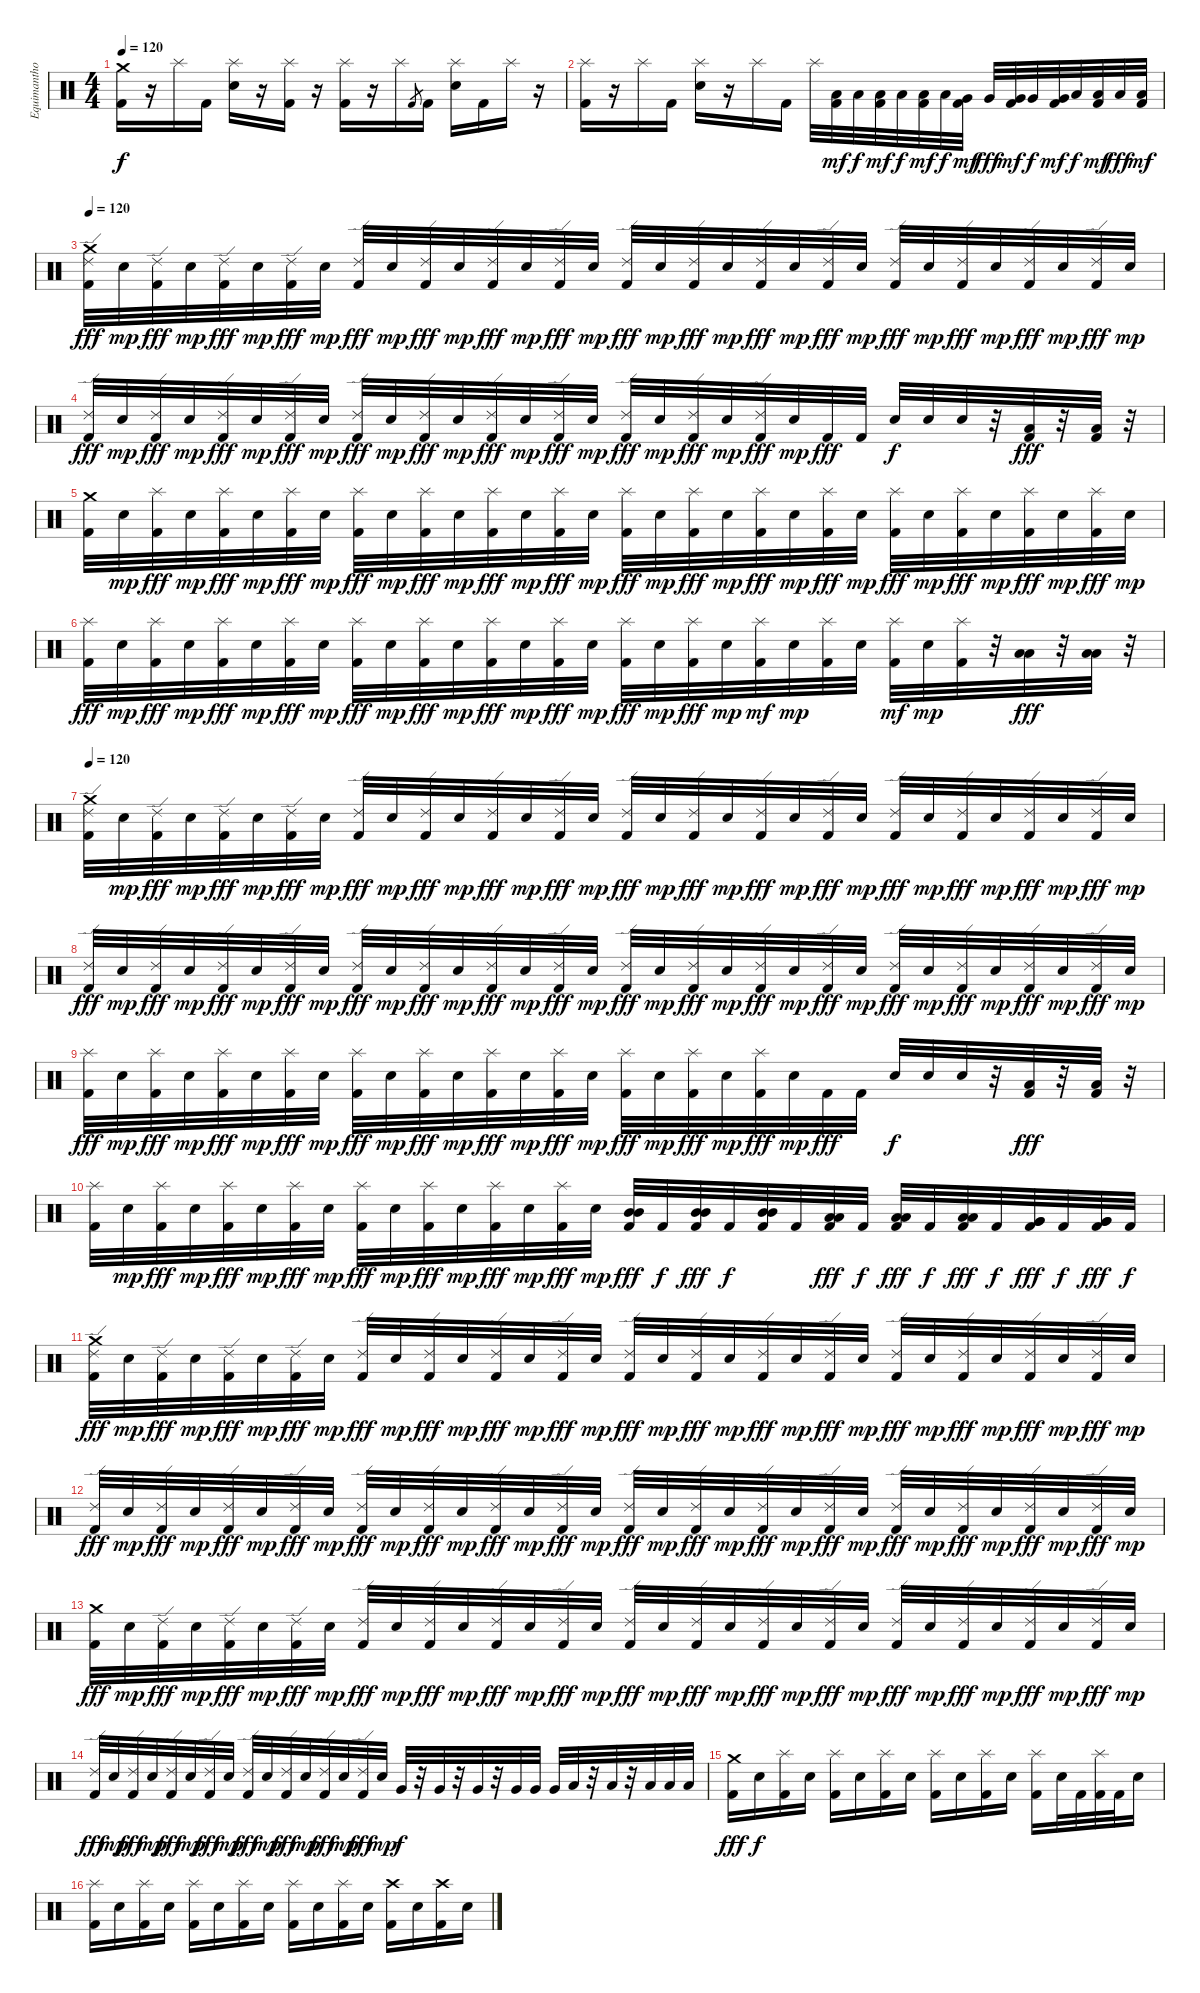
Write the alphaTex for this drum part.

\track ("Equimanthorn" "Equimantho") {instrument percussion}
\staff {score}
\articulation defaults
\ts (4 4)
\tempo 120
\clef neutral
\ks c
("Crash medium (hit)" "Kick (hit) 2").16{dy f} r.16 "Splash (hit)".16 "Kick (hit) 2".16 ("Splash (hit)" "Snare (hit) 2").16 r.16 ("Splash (hit)" "Kick (hit) 2").16 r.16 ("Splash (hit)" "Kick (hit) 2").16 r.16 "Splash (hit)".16 "Kick (hit) 2".8{gr} "Kick (hit) 2".16 ("Splash (hit)" "Snare (hit) 2").16 "Kick (hit) 2".16 "Splash (hit)".16 r.16 |
("Splash (hit)" "Kick (hit) 2").16 r.16 "Splash (hit)".16 "Kick (hit) 2".16 ("Splash (hit)" "Snare (hit) 2").16 r.16 "Splash (hit)".16 "Kick (hit) 2".16 "Splash (hit)".32 ("Low Tom (hit)" "Kick (hit) 2").32{dy mf} "Low Tom (hit)".32{dy f} ("Low Tom (hit)" "Kick (hit) 2").32{dy mf} "Low Tom (hit)".32{dy f} ("Low Tom (hit)" "Kick (hit) 2").32{dy mf} "Low Tom (hit)".32{dy f} ("Very Low Tom (hit)" "Kick (hit) 2").32{dy mf} "Very Low Tom (hit)".32{dy fff} ("Very Low Tom (hit)" "Kick (hit) 2").32{dy mf} "Very Low Tom (hit)".32{dy f} ("Very Low Tom (hit)" "Kick (hit) 2").32{dy mf} "Low Floor Tom (hit)".32{dy f} ("Low Floor Tom (hit)" "Kick (hit) 2").32{dy mf} "Low Floor Tom (hit)".32{dy fff} ("Low Floor Tom (hit)" "Kick (hit) 2").32{dy mf} |
\tempo 120
("Crash medium (hit)" "Ride (edge) 2" "Kick (hit) 2").32{dy fff} "Snare (hit) 2".32{dy mp} ("Ride (edge) 2" "Kick (hit) 2").32{dy fff} "Snare (hit) 2".32{dy mp} ("Ride (edge) 2" "Kick (hit) 2").32{dy fff} "Snare (hit) 2".32{dy mp} ("Ride (edge) 2" "Kick (hit) 2").32{dy fff} "Snare (hit) 2".32{dy mp} ("Ride (edge) 2" "Kick (hit) 2").32{dy fff} "Snare (hit) 2".32{dy mp} ("Ride (edge) 2" "Kick (hit) 2").32{dy fff} "Snare (hit) 2".32{dy mp} ("Ride (edge) 2" "Kick (hit) 2").32{dy fff} "Snare (hit) 2".32{dy mp} ("Ride (edge) 2" "Kick (hit) 2").32{dy fff} "Snare (hit) 2".32{dy mp} ("Ride (edge) 2" "Kick (hit) 2").32{dy fff} "Snare (hit) 2".32{dy mp} ("Ride (edge) 2" "Kick (hit) 2").32{dy fff} "Snare (hit) 2".32{dy mp} ("Ride (edge) 2" "Kick (hit) 2").32{dy fff} "Snare (hit) 2".32{dy mp} ("Ride (edge) 2" "Kick (hit) 2").32{dy fff} "Snare (hit) 2".32{dy mp} ("Ride (edge) 2" "Kick (hit) 2").32{dy fff} "Snare (hit) 2".32{dy mp} ("Ride (edge) 2" "Kick (hit) 2").32{dy fff} "Snare (hit) 2".32{dy mp} ("Ride (edge) 2" "Kick (hit) 2").32{dy fff} "Snare (hit) 2".32{dy mp} ("Ride (edge) 2" "Kick (hit) 2").32{dy fff} "Snare (hit) 2".32{dy mp} |
("Ride (edge) 2" "Kick (hit) 2").32{dy fff} "Snare (hit) 2".32{dy mp} ("Ride (edge) 2" "Kick (hit) 2").32{dy fff} "Snare (hit) 2".32{dy mp} ("Ride (edge) 2" "Kick (hit) 2").32{dy fff} "Snare (hit) 2".32{dy mp} ("Ride (edge) 2" "Kick (hit) 2").32{dy fff} "Snare (hit) 2".32{dy mp} ("Ride (edge) 2" "Kick (hit) 2").32{dy fff} "Snare (hit) 2".32{dy mp} ("Ride (edge) 2" "Kick (hit) 2").32{dy fff} "Snare (hit) 2".32{dy mp} ("Ride (edge) 2" "Kick (hit) 2").32{dy fff} "Snare (hit) 2".32{dy mp} ("Ride (edge) 2" "Kick (hit) 2").32{dy fff} "Snare (hit) 2".32{dy mp} ("Ride (edge) 2" "Kick (hit) 2").32{dy fff} "Snare (hit) 2".32{dy mp} ("Ride (edge) 2" "Kick (hit) 2").32{dy fff} "Snare (hit) 2".32{dy mp} ("Ride (edge) 2" "Kick (hit) 2").32{dy fff} "Snare (hit) 2".32{dy mp} "Kick (hit) 2".32{dy fff} "Kick (hit) 2".32 "Snare (hit) 2".32{dy f} "Snare (hit) 2".32 "Snare (hit) 2".32 r.32 ("Low Tom (hit)" "Kick (hit) 2").32{dy fff} r.32 ("Low Tom (hit)" "Kick (hit) 2").32 r.32 |
("Crash medium (hit)" "Kick (hit) 2").32 "Snare (hit) 2".32{dy mp} ("Splash (hit)" "Kick (hit) 2").32{dy fff} "Snare (hit) 2".32{dy mp} ("Splash (hit)" "Kick (hit) 2").32{dy fff} "Snare (hit) 2".32{dy mp} ("Splash (hit)" "Kick (hit) 2").32{dy fff} "Snare (hit) 2".32{dy mp} ("Splash (hit)" "Kick (hit) 2").32{dy fff} "Snare (hit) 2".32{dy mp} ("Splash (hit)" "Kick (hit) 2").32{dy fff} "Snare (hit) 2".32{dy mp} ("Splash (hit)" "Kick (hit) 2").32{dy fff} "Snare (hit) 2".32{dy mp} ("Splash (hit)" "Kick (hit) 2").32{dy fff} "Snare (hit) 2".32{dy mp} ("Splash (hit)" "Kick (hit) 2").32{dy fff} "Snare (hit) 2".32{dy mp} ("Splash (hit)" "Kick (hit) 2").32{dy fff} "Snare (hit) 2".32{dy mp} ("Splash (hit)" "Kick (hit) 2").32{dy fff} "Snare (hit) 2".32{dy mp} ("Splash (hit)" "Kick (hit) 2").32{dy fff} "Snare (hit) 2".32{dy mp} ("Splash (hit)" "Kick (hit) 2").32{dy fff} "Snare (hit) 2".32{dy mp} ("Splash (hit)" "Kick (hit) 2").32{dy fff} "Snare (hit) 2".32{dy mp} ("Splash (hit)" "Kick (hit) 2").32{dy fff} "Snare (hit) 2".32{dy mp} ("Splash (hit)" "Kick (hit) 2").32{dy fff} "Snare (hit) 2".32{dy mp} |
("Splash (hit)" "Kick (hit) 2").32{dy fff} "Snare (hit) 2".32{dy mp} ("Splash (hit)" "Kick (hit) 2").32{dy fff} "Snare (hit) 2".32{dy mp} ("Splash (hit)" "Kick (hit) 2").32{dy fff} "Snare (hit) 2".32{dy mp} ("Splash (hit)" "Kick (hit) 2").32{dy fff} "Snare (hit) 2".32{dy mp} ("Splash (hit)" "Kick (hit) 2").32{dy fff} "Snare (hit) 2".32{dy mp} ("Splash (hit)" "Kick (hit) 2").32{dy fff} "Snare (hit) 2".32{dy mp} ("Splash (hit)" "Kick (hit) 2").32{dy fff} "Snare (hit) 2".32{dy mp} ("Splash (hit)" "Kick (hit) 2").32{dy fff} "Snare (hit) 2".32{dy mp} ("Splash (hit)" "Kick (hit) 2").32{dy fff} "Snare (hit) 2".32{dy mp} ("Splash (hit)" "Kick (hit) 2").32{dy fff} "Snare (hit) 2".32{dy mp} ("Splash (hit)" "Kick (hit) 2").32{dy mf} "Snare (hit) 2".32{dy mp} ("Splash (hit)" "Kick (hit) 2").32 "Snare (hit) 2".32 ("Splash (hit)" "Kick (hit) 2").32{dy mf} "Snare (hit) 2".32{dy mp} ("Splash (hit)" "Kick (hit) 2").32 r.32 ("Low Tom (hit)" "Low Tom (hit)").32{dy fff} r.32 ("Low Tom (hit)" "Low Tom (hit)").32 r.32 |
\tempo 120
("Crash medium (hit)" "Ride (edge) 2" "Kick (hit) 2").32 "Snare (hit) 2".32{dy mp} ("Ride (edge) 2" "Kick (hit) 2").32{dy fff} "Snare (hit) 2".32{dy mp} ("Ride (edge) 2" "Kick (hit) 2").32{dy fff} "Snare (hit) 2".32{dy mp} ("Ride (edge) 2" "Kick (hit) 2").32{dy fff} "Snare (hit) 2".32{dy mp} ("Ride (edge) 2" "Kick (hit) 2").32{dy fff} "Snare (hit) 2".32{dy mp} ("Ride (edge) 2" "Kick (hit) 2").32{dy fff} "Snare (hit) 2".32{dy mp} ("Ride (edge) 2" "Kick (hit) 2").32{dy fff} "Snare (hit) 2".32{dy mp} ("Ride (edge) 2" "Kick (hit) 2").32{dy fff} "Snare (hit) 2".32{dy mp} ("Ride (edge) 2" "Kick (hit) 2").32{dy fff} "Snare (hit) 2".32{dy mp} ("Ride (edge) 2" "Kick (hit) 2").32{dy fff} "Snare (hit) 2".32{dy mp} ("Ride (edge) 2" "Kick (hit) 2").32{dy fff} "Snare (hit) 2".32{dy mp} ("Ride (edge) 2" "Kick (hit) 2").32{dy fff} "Snare (hit) 2".32{dy mp} ("Ride (edge) 2" "Kick (hit) 2").32{dy fff} "Snare (hit) 2".32{dy mp} ("Ride (edge) 2" "Kick (hit) 2").32{dy fff} "Snare (hit) 2".32{dy mp} ("Ride (edge) 2" "Kick (hit) 2").32{dy fff} "Snare (hit) 2".32{dy mp} ("Ride (edge) 2" "Kick (hit) 2").32{dy fff} "Snare (hit) 2".32{dy mp} |
("Ride (edge) 2" "Kick (hit) 2").32{dy fff} "Snare (hit) 2".32{dy mp} ("Ride (edge) 2" "Kick (hit) 2").32{dy fff} "Snare (hit) 2".32{dy mp} ("Ride (edge) 2" "Kick (hit) 2").32{dy fff} "Snare (hit) 2".32{dy mp} ("Ride (edge) 2" "Kick (hit) 2").32{dy fff} "Snare (hit) 2".32{dy mp} ("Ride (edge) 2" "Kick (hit) 2").32{dy fff} "Snare (hit) 2".32{dy mp} ("Ride (edge) 2" "Kick (hit) 2").32{dy fff} "Snare (hit) 2".32{dy mp} ("Ride (edge) 2" "Kick (hit) 2").32{dy fff} "Snare (hit) 2".32{dy mp} ("Ride (edge) 2" "Kick (hit) 2").32{dy fff} "Snare (hit) 2".32{dy mp} ("Ride (edge) 2" "Kick (hit) 2").32{dy fff} "Snare (hit) 2".32{dy mp} ("Ride (edge) 2" "Kick (hit) 2").32{dy fff} "Snare (hit) 2".32{dy mp} ("Ride (edge) 2" "Kick (hit) 2").32{dy fff} "Snare (hit) 2".32{dy mp} ("Ride (edge) 2" "Kick (hit) 2").32{dy fff} "Snare (hit) 2".32{dy mp} ("Ride (edge) 2" "Kick (hit) 2").32{dy fff} "Snare (hit) 2".32{dy mp} ("Ride (edge) 2" "Kick (hit) 2").32{dy fff} "Snare (hit) 2".32{dy mp} ("Ride (edge) 2" "Kick (hit) 2").32{dy fff} "Snare (hit) 2".32{dy mp} ("Ride (edge) 2" "Kick (hit) 2").32{dy fff} "Snare (hit) 2".32{dy mp} |
("Splash (hit)" "Kick (hit) 2").32{dy fff} "Snare (hit) 2".32{dy mp} ("Splash (hit)" "Kick (hit) 2").32{dy fff} "Snare (hit) 2".32{dy mp} ("Splash (hit)" "Kick (hit) 2").32{dy fff} "Snare (hit) 2".32{dy mp} ("Splash (hit)" "Kick (hit) 2").32{dy fff} "Snare (hit) 2".32{dy mp} ("Splash (hit)" "Kick (hit) 2").32{dy fff} "Snare (hit) 2".32{dy mp} ("Splash (hit)" "Kick (hit) 2").32{dy fff} "Snare (hit) 2".32{dy mp} ("Splash (hit)" "Kick (hit) 2").32{dy fff} "Snare (hit) 2".32{dy mp} ("Splash (hit)" "Kick (hit) 2").32{dy fff} "Snare (hit) 2".32{dy mp} ("Splash (hit)" "Kick (hit) 2").32{dy fff} "Snare (hit) 2".32{dy mp} ("Splash (hit)" "Kick (hit) 2").32{dy fff} "Snare (hit) 2".32{dy mp} ("Splash (hit)" "Kick (hit) 2").32{dy fff} "Snare (hit) 2".32{dy mp} "Kick (hit) 2".32{dy fff} "Kick (hit) 2".32 "Snare (hit) 2".32{dy f} "Snare (hit) 2".32 "Snare (hit) 2".32 r.32 ("Low Tom (hit)" "Kick (hit) 2").32{dy fff} r.32 ("Low Tom (hit)" "Kick (hit) 2").32 r.32 |
("Splash (hit)" "Kick (hit) 2").32 "Snare (hit) 2".32{dy mp} ("Splash (hit)" "Kick (hit) 2").32{dy fff} "Snare (hit) 2".32{dy mp} ("Splash (hit)" "Kick (hit) 2").32{dy fff} "Snare (hit) 2".32{dy mp} ("Splash (hit)" "Kick (hit) 2").32{dy fff} "Snare (hit) 2".32{dy mp} ("Splash (hit)" "Kick (hit) 2").32{dy fff} "Snare (hit) 2".32{dy mp} ("Splash (hit)" "Kick (hit) 2").32{dy fff} "Snare (hit) 2".32{dy mp} ("Splash (hit)" "Kick (hit) 2").32{dy fff} "Snare (hit) 2".32{dy mp} ("Splash (hit)" "Kick (hit) 2").32{dy fff} "Snare (hit) 2".32{dy mp} ("Mid Tom (hit)" "Mid Tom (hit)" "Kick (hit) 2").32{dy fff} "Kick (hit) 2".32{dy f} ("Mid Tom (hit)" "Mid Tom (hit)" "Kick (hit) 2").32{dy fff} "Kick (hit) 2".32{dy f} ("Mid Tom (hit)" "Mid Tom (hit)" "Kick (hit) 2").32 "Kick (hit) 2".32 ("Low Tom (hit)" "Low Tom (hit)" "Kick (hit) 2").32{dy fff} "Kick (hit) 2".32{dy f} ("Low Tom (hit)" "Low Tom (hit)" "Kick (hit) 2").32{dy fff} "Kick (hit) 2".32{dy f} ("Low Tom (hit)" "Low Tom (hit)" "Kick (hit) 2").32{dy fff} "Kick (hit) 2".32{dy f} ("Very Low Tom (hit)" "Very Low Tom (hit)" "Kick (hit) 2").32{dy fff} "Kick (hit) 2".32{dy f} ("Very Low Tom (hit)" "Very Low Tom (hit)" "Kick (hit) 2").32{dy fff} "Kick (hit) 2".32{dy f} |
("Crash medium (hit)" "Ride (edge) 2" "Kick (hit) 2").32{dy fff} "Snare (hit) 2".32{dy mp} ("Ride (edge) 2" "Kick (hit) 2").32{dy fff} "Snare (hit) 2".32{dy mp} ("Ride (edge) 2" "Kick (hit) 2").32{dy fff} "Snare (hit) 2".32{dy mp} ("Ride (edge) 2" "Kick (hit) 2").32{dy fff} "Snare (hit) 2".32{dy mp} ("Ride (edge) 2" "Kick (hit) 2").32{dy fff} "Snare (hit) 2".32{dy mp} ("Ride (edge) 2" "Kick (hit) 2").32{dy fff} "Snare (hit) 2".32{dy mp} ("Ride (edge) 2" "Kick (hit) 2").32{dy fff} "Snare (hit) 2".32{dy mp} ("Ride (edge) 2" "Kick (hit) 2").32{dy fff} "Snare (hit) 2".32{dy mp} ("Ride (edge) 2" "Kick (hit) 2").32{dy fff} "Snare (hit) 2".32{dy mp} ("Ride (edge) 2" "Kick (hit) 2").32{dy fff} "Snare (hit) 2".32{dy mp} ("Ride (edge) 2" "Kick (hit) 2").32{dy fff} "Snare (hit) 2".32{dy mp} ("Ride (edge) 2" "Kick (hit) 2").32{dy fff} "Snare (hit) 2".32{dy mp} ("Ride (edge) 2" "Kick (hit) 2").32{dy fff} "Snare (hit) 2".32{dy mp} ("Ride (edge) 2" "Kick (hit) 2").32{dy fff} "Snare (hit) 2".32{dy mp} ("Ride (edge) 2" "Kick (hit) 2").32{dy fff} "Snare (hit) 2".32{dy mp} ("Ride (edge) 2" "Kick (hit) 2").32{dy fff} "Snare (hit) 2".32{dy mp} |
("Ride (edge) 2" "Kick (hit) 2").32{dy fff} "Snare (hit) 2".32{dy mp} ("Ride (edge) 2" "Kick (hit) 2").32{dy fff} "Snare (hit) 2".32{dy mp} ("Ride (edge) 2" "Kick (hit) 2").32{dy fff} "Snare (hit) 2".32{dy mp} ("Ride (edge) 2" "Kick (hit) 2").32{dy fff} "Snare (hit) 2".32{dy mp} ("Ride (edge) 2" "Kick (hit) 2").32{dy fff} "Snare (hit) 2".32{dy mp} ("Ride (edge) 2" "Kick (hit) 2").32{dy fff} "Snare (hit) 2".32{dy mp} ("Ride (edge) 2" "Kick (hit) 2").32{dy fff} "Snare (hit) 2".32{dy mp} ("Ride (edge) 2" "Kick (hit) 2").32{dy fff} "Snare (hit) 2".32{dy mp} ("Ride (edge) 2" "Kick (hit) 2").32{dy fff} "Snare (hit) 2".32{dy mp} ("Ride (edge) 2" "Kick (hit) 2").32{dy fff} "Snare (hit) 2".32{dy mp} ("Ride (edge) 2" "Kick (hit) 2").32{dy fff} "Snare (hit) 2".32{dy mp} ("Ride (edge) 2" "Kick (hit) 2").32{dy fff} "Snare (hit) 2".32{dy mp} ("Ride (edge) 2" "Kick (hit) 2").32{dy fff} "Snare (hit) 2".32{dy mp} ("Ride (edge) 2" "Kick (hit) 2").32{dy fff} "Snare (hit) 2".32{dy mp} ("Ride (edge) 2" "Kick (hit) 2").32{dy fff} "Snare (hit) 2".32{dy mp} ("Ride (edge) 2" "Kick (hit) 2").32{dy fff} "Snare (hit) 2".32{dy mp} |
("Crash medium (hit)" "Kick (hit) 2").32{dy fff} "Snare (hit) 2".32{dy mp} ("Ride (edge) 2" "Kick (hit) 2").32{dy fff} "Snare (hit) 2".32{dy mp} ("Ride (edge) 2" "Kick (hit) 2").32{dy fff} "Snare (hit) 2".32{dy mp} ("Ride (edge) 2" "Kick (hit) 2").32{dy fff} "Snare (hit) 2".32{dy mp} ("Ride (edge) 2" "Kick (hit) 2").32{dy fff} "Snare (hit) 2".32{dy mp} ("Ride (edge) 2" "Kick (hit) 2").32{dy fff} "Snare (hit) 2".32{dy mp} ("Ride (edge) 2" "Kick (hit) 2").32{dy fff} "Snare (hit) 2".32{dy mp} ("Ride (edge) 2" "Kick (hit) 2").32{dy fff} "Snare (hit) 2".32{dy mp} ("Ride (edge) 2" "Kick (hit) 2").32{dy fff} "Snare (hit) 2".32{dy mp} ("Ride (edge) 2" "Kick (hit) 2").32{dy fff} "Snare (hit) 2".32{dy mp} ("Ride (edge) 2" "Kick (hit) 2").32{dy fff} "Snare (hit) 2".32{dy mp} ("Ride (edge) 2" "Kick (hit) 2").32{dy fff} "Snare (hit) 2".32{dy mp} ("Ride (edge) 2" "Kick (hit) 2").32{dy fff} "Snare (hit) 2".32{dy mp} ("Ride (edge) 2" "Kick (hit) 2").32{dy fff} "Snare (hit) 2".32{dy mp} ("Ride (edge) 2" "Kick (hit) 2").32{dy fff} "Snare (hit) 2".32{dy mp} ("Ride (edge) 2" "Kick (hit) 2").32{dy fff} "Snare (hit) 2".32{dy mp} |
("Ride (edge) 2" "Kick (hit) 2").32{dy fff} "Snare (hit) 2".32{dy mp} ("Ride (edge) 2" "Kick (hit) 2").32{dy fff} "Snare (hit) 2".32{dy mp} ("Ride (edge) 2" "Kick (hit) 2").32{dy fff} "Snare (hit) 2".32{dy mp} ("Ride (edge) 2" "Kick (hit) 2").32{dy fff} "Snare (hit) 2".32{dy mp} ("Ride (edge) 2" "Kick (hit) 2").32{dy fff} "Snare (hit) 2".32{dy mp} ("Ride (edge) 2" "Kick (hit) 2").32{dy fff} "Snare (hit) 2".32{dy mp} ("Ride (edge) 2" "Kick (hit) 2").32{dy fff} "Snare (hit) 2".32{dy mp} ("Ride (edge) 2" "Kick (hit) 2").32{dy fff} "Snare (hit) 2".32{dy mp} "Very Low Tom (hit)".32{dy f} r.32 "Very Low Tom (hit)".32 r.32 "Very Low Tom (hit)".32 r.32 "Very Low Tom (hit)".32 "Very Low Tom (hit)".32 "Very Low Tom (hit)".32 "Low Floor Tom (hit)".32 r.32 "Low Floor Tom (hit)".32 r.32 "Low Floor Tom (hit)".32 "Low Floor Tom (hit)".32 "Low Floor Tom (hit)".32 |
("Crash medium (hit)" "Kick (hit) 2").16{dy fff} "Snare (hit) 2".16{dy f} ("Splash (hit)" "Kick (hit) 2").16 "Snare (hit) 2".16 ("Splash (hit)" "Kick (hit) 2").16 "Snare (hit) 2".16 ("Splash (hit)" "Kick (hit) 2").16 "Snare (hit) 2".16 ("Splash (hit)" "Kick (hit) 2").16 "Snare (hit) 2".16 ("Splash (hit)" "Kick (hit) 2").16 "Snare (hit) 2".16 ("Splash (hit)" "Kick (hit) 2").16 "Snare (hit) 2".32 "Kick (hit) 2".32 ("Splash (hit)" "Kick (hit) 2").32 "Kick (hit) 2".32 "Snare (hit) 2".16 |
("Splash (hit)" "Kick (hit) 2").16 "Snare (hit) 2".16 ("Splash (hit)" "Kick (hit) 2").16 "Snare (hit) 2".16 ("Splash (hit)" "Kick (hit) 2").16 "Snare (hit) 2".16 ("Splash (hit)" "Kick (hit) 2").16 "Snare (hit) 2".16 ("Splash (hit)" "Kick (hit) 2").16 "Snare (hit) 2".16 ("Splash (hit)" "Kick (hit) 2").16 "Snare (hit) 2".16 ("Crash high (hit)" "Kick (hit) 2").16 "Snare (hit) 2".16 ("Crash high (hit)" "Kick (hit) 2").16 "Snare (hit) 2".16
